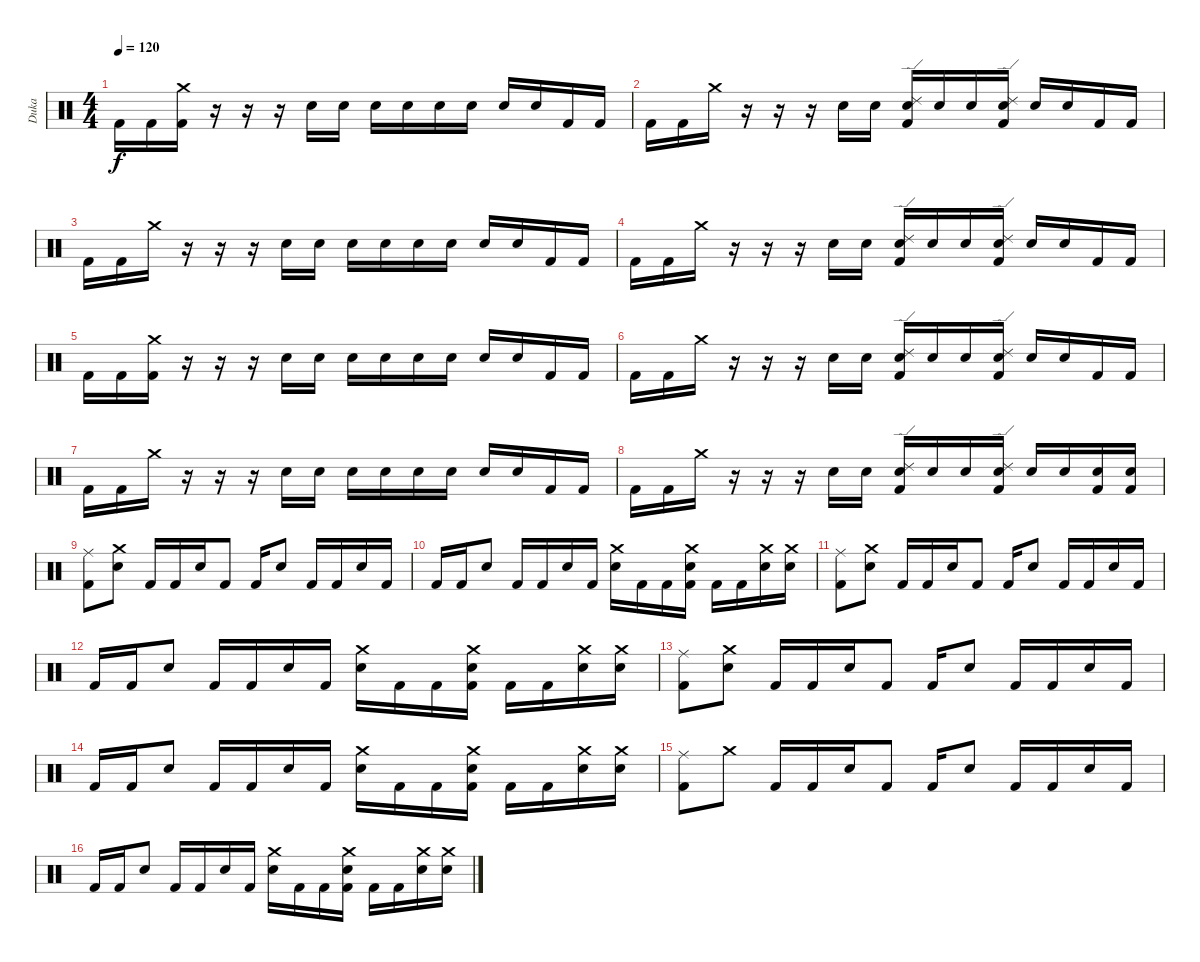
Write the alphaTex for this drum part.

\track ("Duka" "Duka") {instrument percussion}
\staff {score}
\articulation defaults
\ts (4 4)
\tempo 120
\clef neutral
\ks c "Kick (hit) 2".16{dy f} "Kick (hit) 2".16
("Crash medium (hit)" "Kick (hit) 2").16 r.16 r.16 r.16 "Snare (hit)".16 "Snare (hit)".16 "Snare (hit)".16 "Snare (hit)".16 "Snare (hit)".16 "Snare (hit)".16 "Snare (hit)".16 "Snare (hit)".16 "Kick (hit) 2".16 "Kick (hit) 2".16 |
"Kick (hit) 2".16 "Kick (hit) 2".16 "Crash medium (hit)".16 r.16 r.16 r.16 "Snare (hit)".16 "Snare (hit)".16 ("Ride (edge) 2" "Kick (hit) 2" "Snare (hit)").16 "Snare (hit)".16 "Snare (hit)".16 ("Ride (edge) 2" "Kick (hit) 2" "Snare (hit)").16 "Snare (hit)".16 "Snare (hit)".16 "Kick (hit) 2".16 "Kick (hit) 2".16 |
"Kick (hit) 2".16 "Kick (hit) 2".16 "Crash medium (hit)".16 r.16 r.16 r.16 "Snare (hit)".16 "Snare (hit)".16 "Snare (hit)".16 "Snare (hit)".16 "Snare (hit)".16 "Snare (hit)".16 "Snare (hit)".16 "Snare (hit)".16 "Kick (hit) 2".16 "Kick (hit) 2".16 |
"Kick (hit) 2".16 "Kick (hit) 2".16 "Crash medium (hit)".16 r.16 r.16 r.16 "Snare (hit)".16 "Snare (hit)".16 ("Ride (edge) 2" "Kick (hit) 2" "Snare (hit)").16 "Snare (hit)".16 "Snare (hit)".16 ("Ride (edge) 2" "Kick (hit) 2" "Snare (hit)").16 "Snare (hit)".16 "Snare (hit)".16 "Kick (hit) 2".16 "Kick (hit) 2".16 |
"Kick (hit) 2".16 "Kick (hit) 2".16 ("Crash medium (hit)" "Kick (hit) 2").16 r.16 r.16 r.16 "Snare (hit)".16 "Snare (hit)".16 "Snare (hit)".16 "Snare (hit)".16 "Snare (hit)".16 "Snare (hit)".16 "Snare (hit)".16 "Snare (hit)".16 "Kick (hit) 2".16 "Kick (hit) 2".16 |
"Kick (hit) 2".16 "Kick (hit) 2".16 "Crash medium (hit)".16 r.16 r.16 r.16 "Snare (hit)".16 "Snare (hit)".16 ("Ride (edge) 2" "Kick (hit) 2" "Snare (hit)").16 "Snare (hit)".16 "Snare (hit)".16 ("Ride (edge) 2" "Kick (hit) 2" "Snare (hit)").16 "Snare (hit)".16 "Snare (hit)".16 "Kick (hit) 2".16 "Kick (hit) 2".16 |
"Kick (hit) 2".16 "Kick (hit) 2".16 "Crash medium (hit)".16 r.16 r.16 r.16 "Snare (hit)".16 "Snare (hit)".16 "Snare (hit)".16 "Snare (hit)".16 "Snare (hit)".16 "Snare (hit)".16 "Snare (hit)".16 "Snare (hit)".16 "Kick (hit) 2".16 "Kick (hit) 2".16 |
"Kick (hit) 2".16 "Kick (hit) 2".16 "Crash medium (hit)".16 r.16 r.16 r.16 "Snare (hit)".16 "Snare (hit)".16 ("Ride (edge) 2" "Kick (hit) 2" "Snare (hit)").16 "Snare (hit)".16 "Snare (hit)".16 ("Ride (edge) 2" "Kick (hit) 2" "Snare (hit)").16 "Snare (hit)".16 "Snare (hit)".16 ("Snare (hit) 2" "Kick (hit) 2").16 ("Snare (hit) 2" "Kick (hit) 2").16 |
("Ride (middle)" "Kick (hit) 2").8 ("Crash medium (hit)" "Snare (hit) 2").8 "Kick (hit) 2".16 "Kick (hit) 2".16 "Snare (hit) 2".16 "Kick (hit) 2".8 "Kick (hit) 2".16 "Snare (hit) 2".8 "Kick (hit) 2".16 "Kick (hit) 2".16 "Snare (hit) 2".16 "Kick (hit) 2".16 |
"Kick (hit) 2".16 "Kick (hit) 2".16 "Snare (hit) 2".8 "Kick (hit) 2".16 "Kick (hit) 2".16 "Snare (hit) 2".16 "Kick (hit) 2".16 ("Snare (hit) 2" "Crash medium (hit)").16 "Kick (hit) 2".16 "Kick (hit) 2".16 ("Crash medium (hit)" "Snare (hit) 2" "Kick (hit) 2").16 "Kick (hit) 2".16 "Kick (hit) 2".16 ("Crash medium (hit)" "Snare (hit) 2").16 ("Crash medium (hit)" "Snare (hit) 2").16 |
("Ride (middle)" "Kick (hit) 2").8 ("Crash medium (hit)" "Snare (hit) 2").8 "Kick (hit) 2".16 "Kick (hit) 2".16 "Snare (hit) 2".16 "Kick (hit) 2".8 "Kick (hit) 2".16 "Snare (hit) 2".8 "Kick (hit) 2".16 "Kick (hit) 2".16 "Snare (hit) 2".16 "Kick (hit) 2".16 |
"Kick (hit) 2".16 "Kick (hit) 2".16 "Snare (hit) 2".8 "Kick (hit) 2".16 "Kick (hit) 2".16 "Snare (hit) 2".16 "Kick (hit) 2".16 ("Snare (hit) 2" "Crash medium (hit)").16 "Kick (hit) 2".16 "Kick (hit) 2".16 ("Crash medium (hit)" "Snare (hit) 2" "Kick (hit) 2").16 "Kick (hit) 2".16 "Kick (hit) 2".16 ("Crash medium (hit)" "Snare (hit) 2").16 ("Crash medium (hit)" "Snare (hit) 2").16 |
("Ride (middle)" "Kick (hit) 2").8 ("Crash medium (hit)" "Snare (hit) 2").8 "Kick (hit) 2".16 "Kick (hit) 2".16 "Snare (hit) 2".16 "Kick (hit) 2".8 "Kick (hit) 2".16 "Snare (hit) 2".8 "Kick (hit) 2".16 "Kick (hit) 2".16 "Snare (hit) 2".16 "Kick (hit) 2".16 |
"Kick (hit) 2".16 "Kick (hit) 2".16 "Snare (hit) 2".8 "Kick (hit) 2".16 "Kick (hit) 2".16 "Snare (hit) 2".16 "Kick (hit) 2".16 ("Snare (hit) 2" "Crash medium (hit)").16 "Kick (hit) 2".16 "Kick (hit) 2".16 ("Crash medium (hit)" "Snare (hit) 2" "Kick (hit) 2").16 "Kick (hit) 2".16 "Kick (hit) 2".16 ("Crash medium (hit)" "Snare (hit) 2").16 ("Crash medium (hit)" "Snare (hit) 2").16 |
("Ride (middle)" "Kick (hit) 2").8 "Crash medium (hit)".8 "Kick (hit) 2".16 "Kick (hit) 2".16 "Snare (hit) 2".16 "Kick (hit) 2".8 "Kick (hit) 2".16 "Snare (hit) 2".8 "Kick (hit) 2".16 "Kick (hit) 2".16 "Snare (hit) 2".16 "Kick (hit) 2".16 |
"Kick (hit) 2".16 "Kick (hit) 2".16 "Snare (hit) 2".8 "Kick (hit) 2".16 "Kick (hit) 2".16 "Snare (hit) 2".16 "Kick (hit) 2".16 ("Snare (hit) 2" "Crash medium (hit)").16 "Kick (hit) 2".16 "Kick (hit) 2".16 ("Crash medium (hit)" "Snare (hit) 2" "Kick (hit) 2").16 "Kick (hit) 2".16 "Kick (hit) 2".16 ("Crash medium (hit)" "Snare (hit) 2").16 ("Crash medium (hit)" "Snare (hit) 2").16
